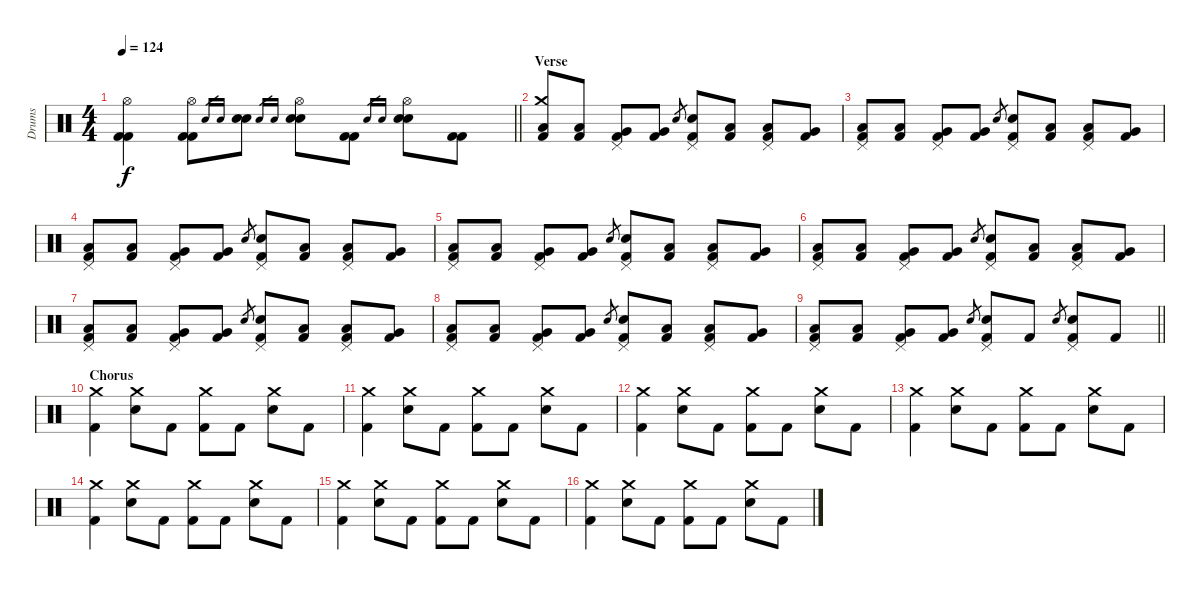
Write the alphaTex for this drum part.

\track ("Drums" "Drums") {instrument percussion}
\staff {score}
\articulation defaults
\ts (4 4)
\tempo 124
\clef neutral
\barLineRight lightlight
\ks c
("Hi-Hat (open)" "Kick (hit) 2" "Kick (hit) 2").4{dy f} ("Hi-Hat (open)" "Kick (hit) 2" "Kick (hit) 2").8 "Electric Snare (hit)".16{gr} "Electric Snare (hit)".16{gr} ("Electric Snare (hit)" "Electric Snare (hit)").8 "Electric Snare (hit)".16{gr} "Electric Snare (hit)".16{gr} ("Hi-Hat (open)" "Electric Snare (hit)" "Electric Snare (hit)").8 ("Kick (hit) 2" "Kick (hit) 2").8 "Electric Snare (hit)".16{gr} "Electric Snare (hit)".16{gr} ("Hi-Hat (open)" "Electric Snare (hit)" "Electric Snare (hit)").8 ("Kick (hit) 2" "Kick (hit) 2").8 |
\section ("" "Verse")
("Crash medium (hit)" "Low Tom (hit)" "Kick (hit) 2").8 ("Low Tom (hit)" "Kick (hit) 2").8 ("Pedal Hi-Hat (hit)" "Very Low Tom (hit)" "Kick (hit) 2").8 ("Very Low Tom (hit)" "Kick (hit) 2").8 "Electric Snare (hit)".8{gr} ("Pedal Hi-Hat (hit)" "Electric Snare (hit)" "Kick (hit) 2").8 ("Low Tom (hit)" "Kick (hit) 2").8 ("Pedal Hi-Hat (hit)" "Low Tom (hit)" "Kick (hit) 2").8 ("Very Low Tom (hit)" "Kick (hit) 2").8 |
("Pedal Hi-Hat (hit)" "Low Tom (hit)" "Kick (hit) 2").8 ("Low Tom (hit)" "Kick (hit) 2").8 ("Pedal Hi-Hat (hit)" "Very Low Tom (hit)" "Kick (hit) 2").8 ("Very Low Tom (hit)" "Kick (hit) 2").8 "Electric Snare (hit)".8{gr} ("Pedal Hi-Hat (hit)" "Electric Snare (hit)" "Kick (hit) 2").8 ("Low Tom (hit)" "Kick (hit) 2").8 ("Pedal Hi-Hat (hit)" "Low Tom (hit)" "Kick (hit) 2").8 ("Very Low Tom (hit)" "Kick (hit) 2").8 |
("Pedal Hi-Hat (hit)" "Low Tom (hit)" "Kick (hit) 2").8 ("Low Tom (hit)" "Kick (hit) 2").8 ("Pedal Hi-Hat (hit)" "Very Low Tom (hit)" "Kick (hit) 2").8 ("Very Low Tom (hit)" "Kick (hit) 2").8 "Electric Snare (hit)".8{gr} ("Pedal Hi-Hat (hit)" "Electric Snare (hit)" "Kick (hit) 2").8 ("Low Tom (hit)" "Kick (hit) 2").8 ("Pedal Hi-Hat (hit)" "Low Tom (hit)" "Kick (hit) 2").8 ("Very Low Tom (hit)" "Kick (hit) 2").8 |
("Pedal Hi-Hat (hit)" "Low Tom (hit)" "Kick (hit) 2").8 ("Low Tom (hit)" "Kick (hit) 2").8 ("Pedal Hi-Hat (hit)" "Very Low Tom (hit)" "Kick (hit) 2").8 ("Very Low Tom (hit)" "Kick (hit) 2").8 "Electric Snare (hit)".8{gr} ("Pedal Hi-Hat (hit)" "Electric Snare (hit)" "Kick (hit) 2").8 ("Low Tom (hit)" "Kick (hit) 2").8 ("Pedal Hi-Hat (hit)" "Low Tom (hit)" "Kick (hit) 2").8 ("Very Low Tom (hit)" "Kick (hit) 2").8 |
("Pedal Hi-Hat (hit)" "Low Tom (hit)" "Kick (hit) 2").8 ("Low Tom (hit)" "Kick (hit) 2").8 ("Pedal Hi-Hat (hit)" "Very Low Tom (hit)" "Kick (hit) 2").8 ("Very Low Tom (hit)" "Kick (hit) 2").8 "Electric Snare (hit)".8{gr} ("Pedal Hi-Hat (hit)" "Electric Snare (hit)" "Kick (hit) 2").8 ("Low Tom (hit)" "Kick (hit) 2").8 ("Pedal Hi-Hat (hit)" "Low Tom (hit)" "Kick (hit) 2").8 ("Very Low Tom (hit)" "Kick (hit) 2").8 |
("Pedal Hi-Hat (hit)" "Low Tom (hit)" "Kick (hit) 2").8 ("Low Tom (hit)" "Kick (hit) 2").8 ("Pedal Hi-Hat (hit)" "Very Low Tom (hit)" "Kick (hit) 2").8 ("Very Low Tom (hit)" "Kick (hit) 2").8 "Electric Snare (hit)".8{gr} ("Pedal Hi-Hat (hit)" "Electric Snare (hit)" "Kick (hit) 2").8 ("Low Tom (hit)" "Kick (hit) 2").8 ("Pedal Hi-Hat (hit)" "Low Tom (hit)" "Kick (hit) 2").8 ("Very Low Tom (hit)" "Kick (hit) 2").8 |
("Pedal Hi-Hat (hit)" "Low Tom (hit)" "Kick (hit) 2").8 ("Low Tom (hit)" "Kick (hit) 2").8 ("Pedal Hi-Hat (hit)" "Very Low Tom (hit)" "Kick (hit) 2").8 ("Very Low Tom (hit)" "Kick (hit) 2").8 "Electric Snare (hit)".8{gr} ("Pedal Hi-Hat (hit)" "Electric Snare (hit)" "Kick (hit) 2").8 ("Low Tom (hit)" "Kick (hit) 2").8 ("Pedal Hi-Hat (hit)" "Low Tom (hit)" "Kick (hit) 2").8 ("Very Low Tom (hit)" "Kick (hit) 2").8 |
\barLineRight lightlight
("Pedal Hi-Hat (hit)" "Low Tom (hit)" "Kick (hit) 2").8 ("Low Tom (hit)" "Kick (hit) 2").8 ("Pedal Hi-Hat (hit)" "Very Low Tom (hit)" "Kick (hit) 2").8 ("Very Low Tom (hit)" "Kick (hit) 2").8 "Electric Snare (hit)".8{gr} ("Pedal Hi-Hat (hit)" "Electric Snare (hit)" "Kick (hit) 2").8 "Kick (hit) 2".8 "Electric Snare (hit)".8{gr} ("Pedal Hi-Hat (hit)" "Electric Snare (hit)" "Kick (hit) 2").8 "Kick (hit) 2".8 |
\section ("" "Chorus")
("Crash medium (hit)" "Kick (hit) 2").4 ("Crash medium (hit)" "Electric Snare (hit)").8 "Kick (hit) 2".8 ("Crash medium (hit)" "Kick (hit) 2").8 "Kick (hit) 2".8 ("Crash medium (hit)" "Electric Snare (hit)").8 "Kick (hit) 2".8 |
("Crash medium (hit)" "Kick (hit) 2").4 ("Crash medium (hit)" "Electric Snare (hit)").8 "Kick (hit) 2".8 ("Crash medium (hit)" "Kick (hit) 2").8 "Kick (hit) 2".8 ("Crash medium (hit)" "Electric Snare (hit)").8 "Kick (hit) 2".8 |
("Crash medium (hit)" "Kick (hit) 2").4 ("Crash medium (hit)" "Electric Snare (hit)").8 "Kick (hit) 2".8 ("Crash medium (hit)" "Kick (hit) 2").8 "Kick (hit) 2".8 ("Crash medium (hit)" "Electric Snare (hit)").8 "Kick (hit) 2".8 |
("Crash medium (hit)" "Kick (hit) 2").4 ("Crash medium (hit)" "Electric Snare (hit)").8 "Kick (hit) 2".8 ("Crash medium (hit)" "Kick (hit) 2").8 "Kick (hit) 2".8 ("Crash medium (hit)" "Electric Snare (hit)").8 "Kick (hit) 2".8 |
("Crash medium (hit)" "Kick (hit) 2").4 ("Crash medium (hit)" "Electric Snare (hit)").8 "Kick (hit) 2".8 ("Crash medium (hit)" "Kick (hit) 2").8 "Kick (hit) 2".8 ("Crash medium (hit)" "Electric Snare (hit)").8 "Kick (hit) 2".8 |
("Crash medium (hit)" "Kick (hit) 2").4 ("Crash medium (hit)" "Electric Snare (hit)").8 "Kick (hit) 2".8 ("Crash medium (hit)" "Kick (hit) 2").8 "Kick (hit) 2".8 ("Crash medium (hit)" "Electric Snare (hit)").8 "Kick (hit) 2".8 |
("Crash medium (hit)" "Kick (hit) 2").4 ("Crash medium (hit)" "Electric Snare (hit)").8 "Kick (hit) 2".8 ("Crash medium (hit)" "Kick (hit) 2").8 "Kick (hit) 2".8 ("Crash medium (hit)" "Electric Snare (hit)").8 "Kick (hit) 2".8
